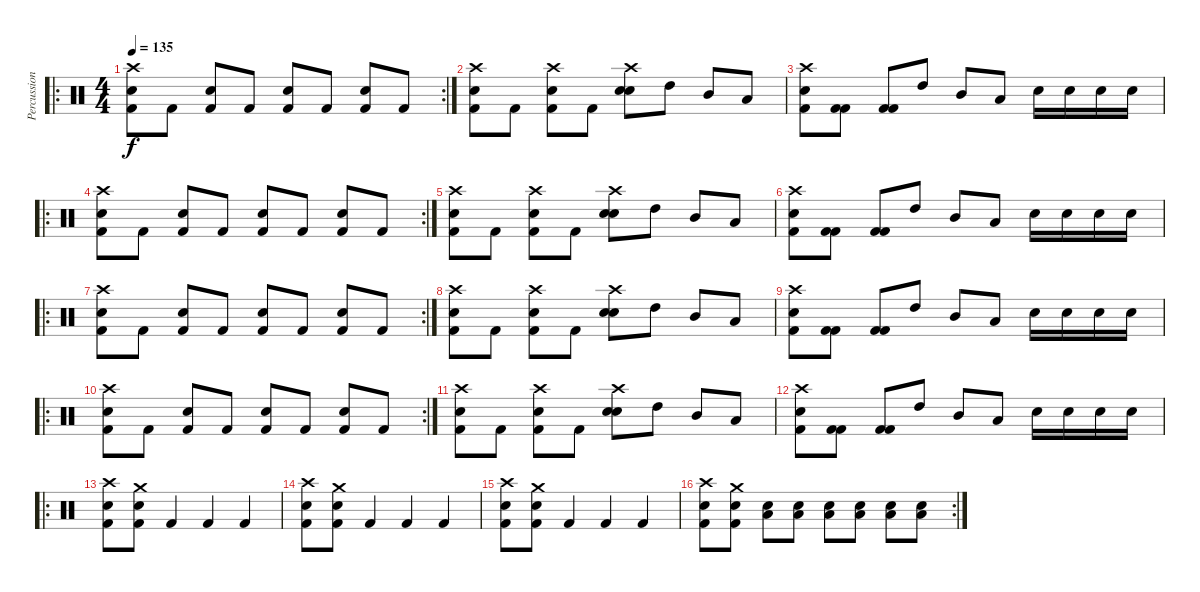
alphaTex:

\track ("Percussions" "Percussion") {instrument percussion}
\staff {score}
\articulation defaults
\ro
\rc 2
\ts (4 4)
\tempo 135
\clef neutral
\ks c
("Crash high (hit)" "Kick (hit) 2" "Electric Snare (hit)").8{dy f} "Kick (hit) 2".8 ("Electric Snare (hit)" "Kick (hit) 2").8 "Kick (hit) 2".8 ("Kick (hit) 2" "Electric Snare (hit)").8 "Kick (hit) 2".8 ("Electric Snare (hit)" "Kick (hit) 2").8 "Kick (hit) 2".8 |
("Crash high (hit)" "Kick (hit) 2" "Electric Snare (hit)").8 "Kick (hit) 2".8 ("Electric Snare (hit)" "Crash high (hit)" "Kick (hit) 2").8 "Kick (hit) 2".8 ("Electric Snare (hit)" "Crash high (hit)" "Electric Snare (hit)").8 "High Tom (hit)".8 "Mid Tom (hit)".8 "Low Tom (hit)".8 |
("Kick (hit) 2" "Crash high (hit)" "Electric Snare (hit)").8 ("Kick (hit) 2" "Kick (hit) 2").8 ("Kick (hit) 2" "Kick (hit) 2").8 "High Tom (hit)".8 "Mid Tom (hit)".8 "Low Tom (hit)".8 "Electric Snare (hit)".16 "Electric Snare (hit)".16 "Electric Snare (hit)".16 "Electric Snare (hit)".16 |
\ro
\rc 2
("Crash high (hit)" "Kick (hit) 2" "Electric Snare (hit)").8 "Kick (hit) 2".8 ("Electric Snare (hit)" "Kick (hit) 2").8 "Kick (hit) 2".8 ("Kick (hit) 2" "Electric Snare (hit)").8 "Kick (hit) 2".8 ("Electric Snare (hit)" "Kick (hit) 2").8 "Kick (hit) 2".8 |
("Crash high (hit)" "Kick (hit) 2" "Electric Snare (hit)").8 "Kick (hit) 2".8 ("Electric Snare (hit)" "Crash high (hit)" "Kick (hit) 2").8 "Kick (hit) 2".8 ("Electric Snare (hit)" "Crash high (hit)" "Electric Snare (hit)").8 "High Tom (hit)".8 "Mid Tom (hit)".8 "Low Tom (hit)".8 |
("Kick (hit) 2" "Crash high (hit)" "Electric Snare (hit)").8 ("Kick (hit) 2" "Kick (hit) 2").8 ("Kick (hit) 2" "Kick (hit) 2").8 "High Tom (hit)".8 "Mid Tom (hit)".8 "Low Tom (hit)".8 "Electric Snare (hit)".16 "Electric Snare (hit)".16 "Electric Snare (hit)".16 "Electric Snare (hit)".16 |
\ro
\rc 2
("Crash high (hit)" "Kick (hit) 2" "Electric Snare (hit)").8 "Kick (hit) 2".8 ("Electric Snare (hit)" "Kick (hit) 2").8 "Kick (hit) 2".8 ("Kick (hit) 2" "Electric Snare (hit)").8 "Kick (hit) 2".8 ("Electric Snare (hit)" "Kick (hit) 2").8 "Kick (hit) 2".8 |
("Crash high (hit)" "Kick (hit) 2" "Electric Snare (hit)").8 "Kick (hit) 2".8 ("Electric Snare (hit)" "Crash high (hit)" "Kick (hit) 2").8 "Kick (hit) 2".8 ("Electric Snare (hit)" "Crash high (hit)" "Electric Snare (hit)").8 "High Tom (hit)".8 "Mid Tom (hit)".8 "Low Tom (hit)".8 |
("Kick (hit) 2" "Crash high (hit)" "Electric Snare (hit)").8 ("Kick (hit) 2" "Kick (hit) 2").8 ("Kick (hit) 2" "Kick (hit) 2").8 "High Tom (hit)".8 "Mid Tom (hit)".8 "Low Tom (hit)".8 "Electric Snare (hit)".16 "Electric Snare (hit)".16 "Electric Snare (hit)".16 "Electric Snare (hit)".16 |
\ro
\rc 2
("Crash high (hit)" "Kick (hit) 2" "Electric Snare (hit)").8 "Kick (hit) 2".8 ("Electric Snare (hit)" "Kick (hit) 2").8 "Kick (hit) 2".8 ("Kick (hit) 2" "Electric Snare (hit)").8 "Kick (hit) 2".8 ("Electric Snare (hit)" "Kick (hit) 2").8 "Kick (hit) 2".8 |
("Crash high (hit)" "Kick (hit) 2" "Electric Snare (hit)").8 "Kick (hit) 2".8 ("Electric Snare (hit)" "Crash high (hit)" "Kick (hit) 2").8 "Kick (hit) 2".8 ("Electric Snare (hit)" "Crash high (hit)" "Electric Snare (hit)").8 "High Tom (hit)".8 "Mid Tom (hit)".8 "Low Tom (hit)".8 |
("Kick (hit) 2" "Crash high (hit)" "Electric Snare (hit)").8 ("Kick (hit) 2" "Kick (hit) 2").8 ("Kick (hit) 2" "Kick (hit) 2").8 "High Tom (hit)".8 "Mid Tom (hit)".8 "Low Tom (hit)".8 "Electric Snare (hit)".16 "Electric Snare (hit)".16 "Electric Snare (hit)".16 "Electric Snare (hit)".16 |
\ro
("Electric Snare (hit)" "Kick (hit) 2" "Crash high (hit)").8 ("Electric Snare (hit)" "Kick (hit) 2" "Crash medium (hit)").8 "Kick (hit) 2".4 "Kick (hit) 2".4 "Kick (hit) 2".4 |
("Electric Snare (hit)" "Kick (hit) 2" "Crash high (hit)").8 ("Electric Snare (hit)" "Kick (hit) 2" "Crash medium (hit)").8 "Kick (hit) 2".4 "Kick (hit) 2".4 "Kick (hit) 2".4 |
("Electric Snare (hit)" "Kick (hit) 2" "Crash high (hit)").8 ("Electric Snare (hit)" "Kick (hit) 2" "Crash medium (hit)").8 "Kick (hit) 2".4 "Kick (hit) 2".4 "Kick (hit) 2".4 |
\rc 2
("Electric Snare (hit)" "Kick (hit) 2" "Crash high (hit)").8 ("Electric Snare (hit)" "Kick (hit) 2" "Crash medium (hit)").8 ("Low Tom (hit)" "Electric Snare (hit)").8 ("Low Tom (hit)" "Electric Snare (hit)").8 ("Low Tom (hit)" "Electric Snare (hit)").8 ("Low Tom (hit)" "Electric Snare (hit)").8 ("Low Tom (hit)" "Electric Snare (hit)").8 ("Low Tom (hit)" "Electric Snare (hit)").8
